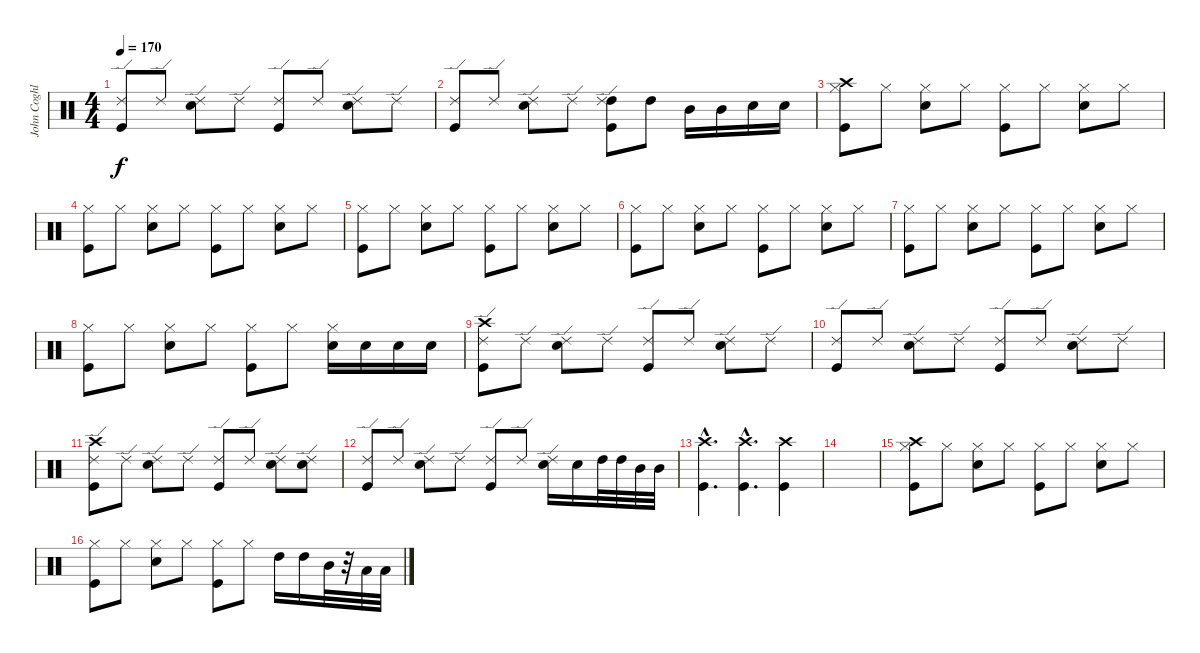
\track ("John Coghlan" "John Coghl") {instrument percussion}
\staff {score}
\articulation defaults
\ts (4 4)
\tempo 170
\clef neutral
\ks c
("Ride (edge) 2" "Kick (hit)").8{dy f} "Ride (edge) 2".8 ("Electric Snare (hit)" "Ride (edge) 2").8 "Ride (edge) 2".8 ("Ride (edge) 2" "Kick (hit)").8 "Ride (edge) 2".8 ("Electric Snare (hit)" "Ride (edge) 2").8 "Ride (edge) 2".8 |
("Ride (edge) 2" "Kick (hit)").8 "Ride (edge) 2".8 ("Electric Snare (hit)" "Ride (edge) 2").8 "Ride (edge) 2".8 ("High Tom (hit)" "Ride (edge) 2" "Kick (hit)").8 "High Tom (hit)".8 "Mid Tom (hit)".16 "Mid Tom (hit)".16 "Electric Snare (hit)".16 "Electric Snare (hit)".16 |
("Crash high (hit)" "Hi-Hat (closed)" "Kick (hit)").8 "Hi-Hat (closed)".8 ("Hi-Hat (closed)" "Electric Snare (hit)").8 "Hi-Hat (closed)".8 ("Hi-Hat (closed)" "Kick (hit)").8 "Hi-Hat (closed)".8 ("Hi-Hat (closed)" "Electric Snare (hit)").8 "Hi-Hat (closed)".8 |
("Hi-Hat (closed)" "Kick (hit)").8 "Hi-Hat (closed)".8 ("Hi-Hat (closed)" "Electric Snare (hit)").8 "Hi-Hat (closed)".8 ("Hi-Hat (closed)" "Kick (hit)").8 "Hi-Hat (closed)".8 ("Hi-Hat (closed)" "Electric Snare (hit)").8 "Hi-Hat (closed)".8 |
("Hi-Hat (closed)" "Kick (hit)").8 "Hi-Hat (closed)".8 ("Hi-Hat (closed)" "Electric Snare (hit)").8 "Hi-Hat (closed)".8 ("Hi-Hat (closed)" "Kick (hit)").8 "Hi-Hat (closed)".8 ("Hi-Hat (closed)" "Electric Snare (hit)").8 "Hi-Hat (closed)".8 |
("Hi-Hat (closed)" "Kick (hit)").8 "Hi-Hat (closed)".8 ("Hi-Hat (closed)" "Electric Snare (hit)").8 "Hi-Hat (closed)".8 ("Hi-Hat (closed)" "Kick (hit)").8 "Hi-Hat (closed)".8 ("Hi-Hat (closed)" "Electric Snare (hit)").8 "Hi-Hat (closed)".8 |
("Hi-Hat (closed)" "Kick (hit)").8 "Hi-Hat (closed)".8 ("Hi-Hat (closed)" "Electric Snare (hit)").8 "Hi-Hat (closed)".8 ("Hi-Hat (closed)" "Kick (hit)").8 "Hi-Hat (closed)".8 ("Hi-Hat (closed)" "Electric Snare (hit)").8 "Hi-Hat (closed)".8 |
("Hi-Hat (closed)" "Kick (hit)").8 "Hi-Hat (closed)".8 ("Hi-Hat (closed)" "Electric Snare (hit)").8 "Hi-Hat (closed)".8 ("Hi-Hat (closed)" "Kick (hit)").8 "Hi-Hat (closed)".8 ("Hi-Hat (closed)" "Electric Snare (hit)").16 "Electric Snare (hit)".16 "Electric Snare (hit)".16 "Electric Snare (hit)".16 |
("Crash high (hit)" "Ride (edge) 2" "Kick (hit)").8 "Ride (edge) 2".8 ("Electric Snare (hit)" "Ride (edge) 2").8 "Ride (edge) 2".8 ("Ride (edge) 2" "Kick (hit)").8 "Ride (edge) 2".8 ("Electric Snare (hit)" "Ride (edge) 2").8 "Ride (edge) 2".8 |
("Ride (edge) 2" "Kick (hit)").8 "Ride (edge) 2".8 ("Electric Snare (hit)" "Ride (edge) 2").8 "Ride (edge) 2".8 ("Ride (edge) 2" "Kick (hit)").8 "Ride (edge) 2".8 ("Electric Snare (hit)" "Ride (edge) 2").8 "Ride (edge) 2".8 |
("Crash high (hit)" "Ride (edge) 2" "Kick (hit)").8 "Ride (edge) 2".8 ("Ride (edge) 2" "Electric Snare (hit)").8 "Ride (edge) 2".8 ("Ride (edge) 2" "Kick (hit)").8 "Ride (edge) 2".8 ("Ride (edge) 2" "Electric Snare (hit)").8 ("Ride (edge) 2" "Electric Snare (hit)").8 |
("Ride (edge) 2" "Kick (hit)").8 "Ride (edge) 2".8 ("Ride (edge) 2" "Electric Snare (hit)").8 "Ride (edge) 2".8 ("Ride (edge) 2" "Kick (hit)").8 "Ride (edge) 2".8 ("Ride (edge) 2" "Electric Snare (hit)").16 "Electric Snare (hit)".16 "High Tom (hit)".32 "High Tom (hit)".32 "Mid Tom (hit)".32 "Mid Tom (hit)".32 |
("Crash high (hit)"{hac} "Kick (hit)"{hac}).4{d} ("Crash high (hit)"{hac} "Kick (hit)"{hac}).4{d} ("Crash high (hit)" "Kick (hit)").4 |
|
("Crash high (hit)" "Hi-Hat (closed)" "Kick (hit)").8 "Hi-Hat (closed)".8 ("Hi-Hat (closed)" "Electric Snare (hit)").8 "Hi-Hat (closed)".8 ("Hi-Hat (closed)" "Kick (hit)").8 "Hi-Hat (closed)".8 ("Hi-Hat (closed)" "Electric Snare (hit)").8 "Hi-Hat (closed)".8 |
("Hi-Hat (closed)" "Kick (hit)").8 "Hi-Hat (closed)".8 ("Hi-Hat (closed)" "Electric Snare (hit)").8 "Hi-Hat (closed)".8 ("Hi-Hat (closed)" "Kick (hit)").8 "Hi-Hat (closed)".8 "High Tom (hit)".16 "High Tom (hit)".16 "Mid Tom (hit)".32 r.32 "Low Tom (hit)".32 "Low Tom (hit)".32
